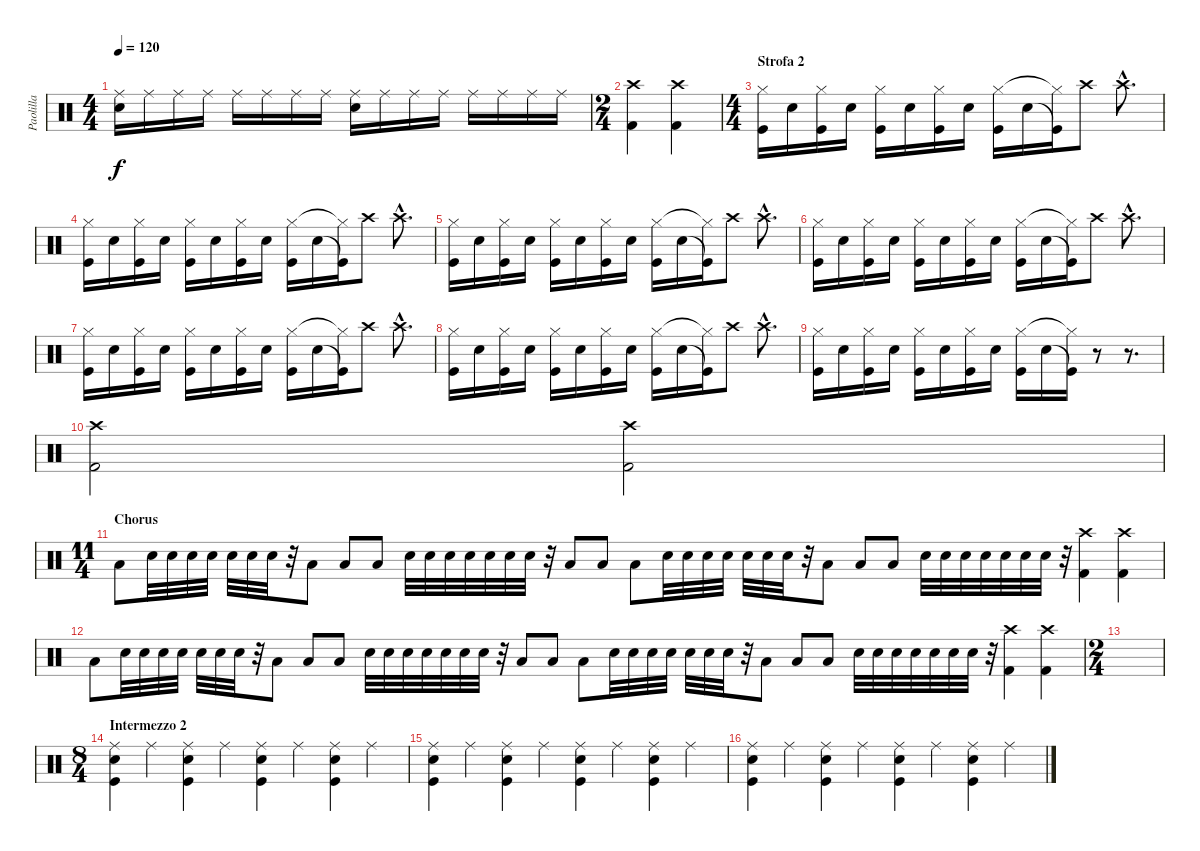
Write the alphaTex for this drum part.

\track ("Paolilla" "Paolilla") {instrument percussion}
\staff {score}
\articulation defaults
\ts (4 4)
\tempo 120
\clef neutral
\ks c
("Ride (middle)" "Snare (hit) 2").16{dy f} "Ride (middle)".16 "Ride (middle)".16 "Ride (middle)".16 "Ride (middle)".16 "Ride (middle)".16 "Ride (middle)".16 "Ride (middle)".16 ("Ride (middle)" "Snare (hit) 2").16 "Ride (middle)".16 "Ride (middle)".16 "Ride (middle)".16 "Ride (middle)".16 "Ride (middle)".16 "Ride (middle)".16 "Ride (middle)".16 |
\ts (2 4)
("Kick (hit) 2" "Crash high (hit)").4 ("Kick (hit) 2" "Crash high (hit)").4 |
\ts (4 4)
\section ("" "Strofa 2")
("Kick (hit)" "Hi-Hat (closed)").16 "Snare (hit) 2".16 ("Kick (hit)" "Hi-Hat (closed)").16 "Snare (hit) 2".16 ("Kick (hit)" "Hi-Hat (closed)").16 "Snare (hit) 2".16 ("Kick (hit)" "Hi-Hat (closed)").16 "Snare (hit) 2".16 ("Kick (hit)" "Hi-Hat (closed)").16 "Snare (hit) 2".16 ("Kick (hit)"{t} "Hi-Hat (closed)"{t}).16 "Crash high (hit)".8 "Crash high (hit)"{hac}.8{d} |
("Kick (hit)" "Hi-Hat (closed)").16 "Snare (hit) 2".16 ("Kick (hit)" "Hi-Hat (closed)").16 "Snare (hit) 2".16 ("Kick (hit)" "Hi-Hat (closed)").16 "Snare (hit) 2".16 ("Kick (hit)" "Hi-Hat (closed)").16 "Snare (hit) 2".16 ("Kick (hit)" "Hi-Hat (closed)").16 "Snare (hit) 2".16 ("Kick (hit)"{t} "Hi-Hat (closed)"{t}).16 "Crash high (hit)".8 "Crash high (hit)"{hac}.8{d} |
("Kick (hit)" "Hi-Hat (closed)").16 "Snare (hit) 2".16 ("Kick (hit)" "Hi-Hat (closed)").16 "Snare (hit) 2".16 ("Kick (hit)" "Hi-Hat (closed)").16 "Snare (hit) 2".16 ("Kick (hit)" "Hi-Hat (closed)").16 "Snare (hit) 2".16 ("Kick (hit)" "Hi-Hat (closed)").16 "Snare (hit) 2".16 ("Kick (hit)"{t} "Hi-Hat (closed)"{t}).16 "Crash high (hit)".8 "Crash high (hit)"{hac}.8{d} |
("Kick (hit)" "Hi-Hat (closed)").16 "Snare (hit) 2".16 ("Kick (hit)" "Hi-Hat (closed)").16 "Snare (hit) 2".16 ("Kick (hit)" "Hi-Hat (closed)").16 "Snare (hit) 2".16 ("Kick (hit)" "Hi-Hat (closed)").16 "Snare (hit) 2".16 ("Kick (hit)" "Hi-Hat (closed)").16 "Snare (hit) 2".16 ("Kick (hit)"{t} "Hi-Hat (closed)"{t}).16 "Crash high (hit)".8 "Crash high (hit)"{hac}.8{d} |
("Kick (hit)" "Hi-Hat (closed)").16 "Snare (hit) 2".16 ("Kick (hit)" "Hi-Hat (closed)").16 "Snare (hit) 2".16 ("Kick (hit)" "Hi-Hat (closed)").16 "Snare (hit) 2".16 ("Kick (hit)" "Hi-Hat (closed)").16 "Snare (hit) 2".16 ("Kick (hit)" "Hi-Hat (closed)").16 "Snare (hit) 2".16 ("Kick (hit)"{t} "Hi-Hat (closed)"{t}).16 "Crash high (hit)".8 "Crash high (hit)"{hac}.8{d} |
("Kick (hit)" "Hi-Hat (closed)").16 "Snare (hit) 2".16 ("Kick (hit)" "Hi-Hat (closed)").16 "Snare (hit) 2".16 ("Kick (hit)" "Hi-Hat (closed)").16 "Snare (hit) 2".16 ("Kick (hit)" "Hi-Hat (closed)").16 "Snare (hit) 2".16 ("Kick (hit)" "Hi-Hat (closed)").16 "Snare (hit) 2".16 ("Kick (hit)"{t} "Hi-Hat (closed)"{t}).16 "Crash high (hit)".8 "Crash high (hit)"{hac}.8{d} |
("Kick (hit)" "Hi-Hat (closed)").16 "Snare (hit) 2".16 ("Kick (hit)" "Hi-Hat (closed)").16 "Snare (hit) 2".16 ("Kick (hit)" "Hi-Hat (closed)").16 "Snare (hit) 2".16 ("Kick (hit)" "Hi-Hat (closed)").16 "Snare (hit) 2".16 ("Kick (hit)" "Hi-Hat (closed)").16 "Snare (hit) 2".16 ("Kick (hit)"{t} "Hi-Hat (closed)"{t}).16 r.8 r.8{d} |
("Kick (hit) 2" "Crash high (hit)").2 ("Kick (hit) 2" "Crash high (hit)").2 |
\ts (11 4)
\section ("" "Chorus")
"Low Tom (hit)".8 "Snare (hit) 2".32 "Snare (hit) 2".32 "Snare (hit) 2".32 "Snare (hit) 2".32 "Snare (hit) 2".32 "Snare (hit) 2".32 "Snare (hit) 2".32 r.32 "Low Tom (hit)".8 "Low Tom (hit)".8 "Low Tom (hit)".8 "Snare (hit) 2".32 "Snare (hit) 2".32 "Snare (hit) 2".32 "Snare (hit) 2".32 "Snare (hit) 2".32 "Snare (hit) 2".32 "Snare (hit) 2".32 r.32 "Low Tom (hit)".8 "Low Tom (hit)".8 "Low Tom (hit)".8 "Snare (hit) 2".32 "Snare (hit) 2".32 "Snare (hit) 2".32 "Snare (hit) 2".32 "Snare (hit) 2".32 "Snare (hit) 2".32 "Snare (hit) 2".32 r.32 "Low Tom (hit)".8 "Low Tom (hit)".8 "Low Tom (hit)".8 "Snare (hit) 2".32 "Snare (hit) 2".32 "Snare (hit) 2".32 "Snare (hit) 2".32 "Snare (hit) 2".32 "Snare (hit) 2".32 "Snare (hit) 2".32 r.32 ("Crash high (hit)" "Kick (hit) 2").4 ("Crash high (hit)" "Kick (hit) 2").4 |
"Low Tom (hit)".8 "Snare (hit) 2".32 "Snare (hit) 2".32 "Snare (hit) 2".32 "Snare (hit) 2".32 "Snare (hit) 2".32 "Snare (hit) 2".32 "Snare (hit) 2".32 r.32 "Low Tom (hit)".8 "Low Tom (hit)".8 "Low Tom (hit)".8 "Snare (hit) 2".32 "Snare (hit) 2".32 "Snare (hit) 2".32 "Snare (hit) 2".32 "Snare (hit) 2".32 "Snare (hit) 2".32 "Snare (hit) 2".32 r.32 "Low Tom (hit)".8 "Low Tom (hit)".8 "Low Tom (hit)".8 "Snare (hit) 2".32 "Snare (hit) 2".32 "Snare (hit) 2".32 "Snare (hit) 2".32 "Snare (hit) 2".32 "Snare (hit) 2".32 "Snare (hit) 2".32 r.32 "Low Tom (hit)".8 "Low Tom (hit)".8 "Low Tom (hit)".8 "Snare (hit) 2".32 "Snare (hit) 2".32 "Snare (hit) 2".32 "Snare (hit) 2".32 "Snare (hit) 2".32 "Snare (hit) 2".32 "Snare (hit) 2".32 r.32 ("Crash high (hit)" "Kick (hit) 2").4 ("Crash high (hit)" "Kick (hit) 2").4 |
\ts (2 4)
|
\ts (8 4)
\section ("" "Intermezzo 2")
("Snare (hit) 2" "Ride (middle)" "Kick (hit)").4 "Ride (middle)".4 ("Snare (hit) 2" "Ride (middle)" "Kick (hit)").4 "Ride (middle)".4 ("Snare (hit) 2" "Ride (middle)" "Kick (hit)").4 "Ride (middle)".4 ("Snare (hit) 2" "Ride (middle)" "Kick (hit)").4 "Ride (middle)".4 |
("Snare (hit) 2" "Ride (middle)" "Kick (hit)").4 "Ride (middle)".4 ("Snare (hit) 2" "Ride (middle)" "Kick (hit)").4 "Ride (middle)".4 ("Snare (hit) 2" "Ride (middle)" "Kick (hit)").4 "Ride (middle)".4 ("Snare (hit) 2" "Ride (middle)" "Kick (hit)").4 "Ride (middle)".4 |
("Snare (hit) 2" "Ride (middle)" "Kick (hit)").4 "Ride (middle)".4 ("Snare (hit) 2" "Ride (middle)" "Kick (hit)").4 "Ride (middle)".4 ("Snare (hit) 2" "Ride (middle)" "Kick (hit)").4 "Ride (middle)".4 ("Snare (hit) 2" "Ride (middle)" "Kick (hit)").4 "Ride (middle)".4
